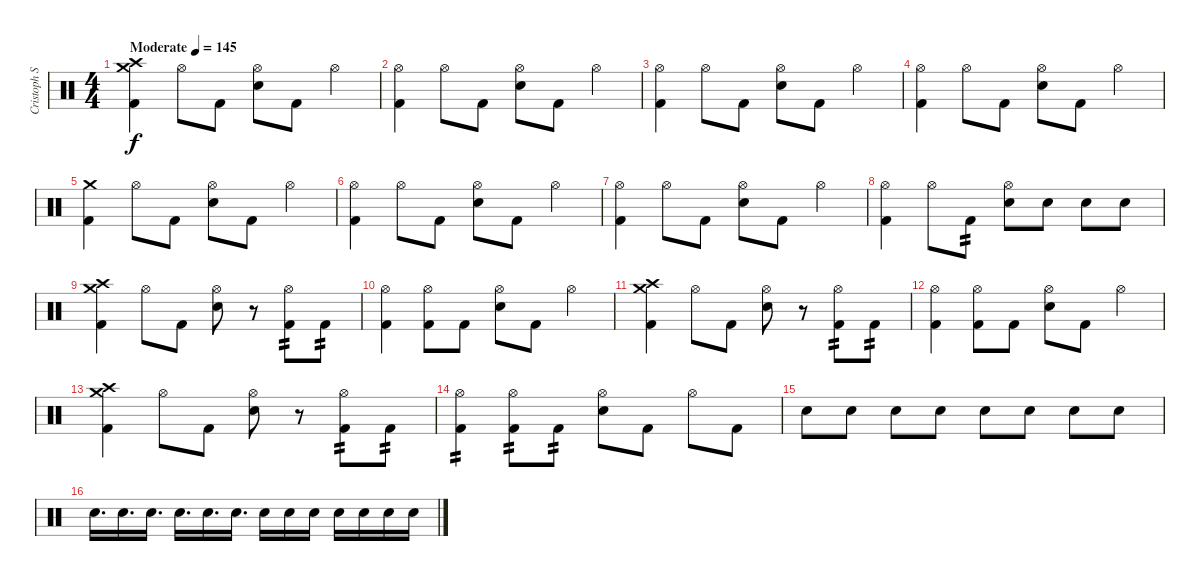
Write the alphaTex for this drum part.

\track ("Cristoph Schneider" "Cristoph S") {instrument percussion}
\staff {score}
\articulation defaults
\ts (4 4)
\tempo (145 "Moderate")
\clef neutral
\ks c
("Crash high (hit)" "Crash medium (hit)" "Kick (hit) 2").4{dy f} "Hi-Hat (open)".8 "Kick (hit) 2".8 ("Hi-Hat (open)" "Electric Snare (hit)").8 "Kick (hit) 2".8 "Hi-Hat (open)".4 |
("Hi-Hat (open)" "Kick (hit) 2").4 "Hi-Hat (open)".8 "Kick (hit) 2".8 ("Hi-Hat (open)" "Electric Snare (hit)").8 "Kick (hit) 2".8 "Hi-Hat (open)".4 |
("Hi-Hat (open)" "Kick (hit) 2").4 "Hi-Hat (open)".8 "Kick (hit) 2".8 ("Hi-Hat (open)" "Electric Snare (hit)").8 "Kick (hit) 2".8 "Hi-Hat (open)".4 |
("Hi-Hat (open)" "Kick (hit) 2").4 "Hi-Hat (open)".8 "Kick (hit) 2".8 ("Hi-Hat (open)" "Electric Snare (hit)").8 "Kick (hit) 2".8 "Hi-Hat (open)".4 |
("Crash medium (hit)" "Kick (hit) 2").4 "Hi-Hat (open)".8 "Kick (hit) 2".8 ("Hi-Hat (open)" "Electric Snare (hit)").8 "Kick (hit) 2".8 "Hi-Hat (open)".4 |
("Hi-Hat (open)" "Kick (hit) 2").4 "Hi-Hat (open)".8 "Kick (hit) 2".8 ("Hi-Hat (open)" "Electric Snare (hit)").8 "Kick (hit) 2".8 "Hi-Hat (open)".4 |
("Hi-Hat (open)" "Kick (hit) 2").4 "Hi-Hat (open)".8 "Kick (hit) 2".8 ("Hi-Hat (open)" "Electric Snare (hit)").8 "Kick (hit) 2".8 "Hi-Hat (open)".4 |
("Hi-Hat (open)" "Kick (hit) 2").4 "Hi-Hat (open)".8 "Kick (hit) 2".8{tp 2} ("Hi-Hat (open)" "Electric Snare (hit)").8 "Electric Snare (hit)".8 "Electric Snare (hit)".8 "Electric Snare (hit)".8 |
("Crash high (hit)" "Crash medium (hit)" "Kick (hit) 2").4 "Hi-Hat (open)".8 "Kick (hit) 2".8 ("Hi-Hat (open)" "Electric Snare (hit)").8 r.8 ("Hi-Hat (open)" "Kick (hit) 2").8{tp 2} "Kick (hit) 2".8{tp 2} |
("Hi-Hat (open)" "Kick (hit) 2").4 ("Hi-Hat (open)" "Kick (hit) 2").8 "Kick (hit) 2".8 ("Hi-Hat (open)" "Electric Snare (hit)").8 "Kick (hit) 2".8 "Hi-Hat (open)".4 |
("Crash high (hit)" "Crash medium (hit)" "Kick (hit) 2").4 "Hi-Hat (open)".8 "Kick (hit) 2".8 ("Hi-Hat (open)" "Electric Snare (hit)").8 r.8 ("Hi-Hat (open)" "Kick (hit) 2").8{tp 2} "Kick (hit) 2".8{tp 2} |
("Hi-Hat (open)" "Kick (hit) 2").4 ("Hi-Hat (open)" "Kick (hit) 2").8 "Kick (hit) 2".8 ("Hi-Hat (open)" "Electric Snare (hit)").8 "Kick (hit) 2".8 "Hi-Hat (open)".4 |
("Crash high (hit)" "Crash medium (hit)" "Kick (hit) 2").4 "Hi-Hat (open)".8 "Kick (hit) 2".8 ("Hi-Hat (open)" "Electric Snare (hit)").8 r.8 ("Hi-Hat (open)" "Kick (hit) 2").8{tp 2} "Kick (hit) 2".8{tp 2} |
("Hi-Hat (open)" "Kick (hit) 2").4{tp 2} ("Hi-Hat (open)" "Kick (hit) 2").8{tp 2} "Kick (hit) 2".8{tp 2} ("Hi-Hat (open)" "Electric Snare (hit)").8 "Kick (hit) 2".8 "Hi-Hat (open)".8 "Kick (hit) 2".8 |
"Electric Snare (hit)".8 "Electric Snare (hit)".8 "Electric Snare (hit)".8 "Electric Snare (hit)".8 "Electric Snare (hit)".8 "Electric Snare (hit)".8 "Electric Snare (hit)".8 "Electric Snare (hit)".8 |
"Electric Snare (hit)".16{d} "Electric Snare (hit)".16{d} "Electric Snare (hit)".16{d} "Electric Snare (hit)".16{d} "Electric Snare (hit)".16{d} "Electric Snare (hit)".16{d} "Electric Snare (hit)".16 "Electric Snare (hit)".16 "Electric Snare (hit)".16 "Electric Snare (hit)".16 "Electric Snare (hit)".16 "Electric Snare (hit)".16 "Electric Snare (hit)".16
